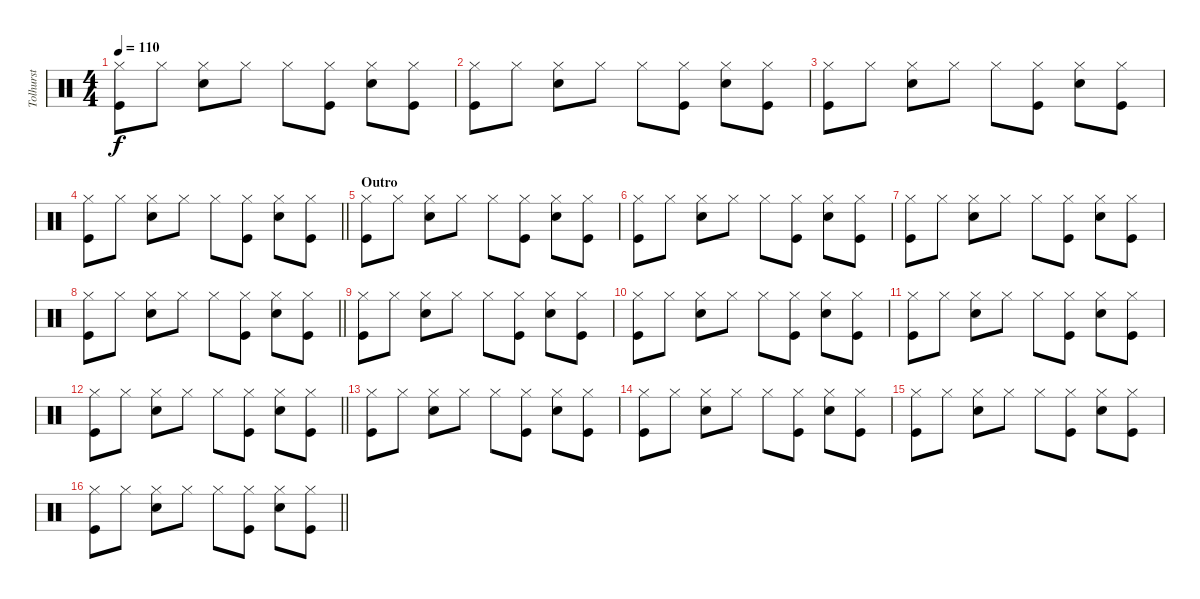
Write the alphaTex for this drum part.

\track ("Tolhurst" "Tolhurst") {instrument percussion}
\staff {score}
\articulation defaults
\ts (4 4)
\tempo 110
\clef neutral
\ks c
("Hi-Hat (closed)" "Kick (hit)").8{dy f} "Hi-Hat (closed)".8 ("Hi-Hat (closed)" "Electric Snare (hit)").8 "Hi-Hat (closed)".8 "Hi-Hat (closed)".8 ("Hi-Hat (closed)" "Kick (hit)").8 ("Hi-Hat (closed)" "Electric Snare (hit)").8 ("Hi-Hat (closed)" "Kick (hit)").8 |
("Hi-Hat (closed)" "Kick (hit)").8 "Hi-Hat (closed)".8 ("Hi-Hat (closed)" "Electric Snare (hit)").8 "Hi-Hat (closed)".8 "Hi-Hat (closed)".8 ("Hi-Hat (closed)" "Kick (hit)").8 ("Hi-Hat (closed)" "Electric Snare (hit)").8 ("Hi-Hat (closed)" "Kick (hit)").8 |
("Hi-Hat (closed)" "Kick (hit)").8 "Hi-Hat (closed)".8 ("Hi-Hat (closed)" "Electric Snare (hit)").8 "Hi-Hat (closed)".8 "Hi-Hat (closed)".8 ("Hi-Hat (closed)" "Kick (hit)").8 ("Hi-Hat (closed)" "Electric Snare (hit)").8 ("Hi-Hat (closed)" "Kick (hit)").8 |
\barLineRight lightlight
("Hi-Hat (closed)" "Kick (hit)").8 "Hi-Hat (closed)".8 ("Hi-Hat (closed)" "Electric Snare (hit)").8 "Hi-Hat (closed)".8 "Hi-Hat (closed)".8 ("Hi-Hat (closed)" "Kick (hit)").8 ("Hi-Hat (closed)" "Electric Snare (hit)").8 ("Hi-Hat (closed)" "Kick (hit)").8 |
\section ("" "Outro")
("Hi-Hat (closed)" "Kick (hit)").8 "Hi-Hat (closed)".8 ("Hi-Hat (closed)" "Electric Snare (hit)").8 "Hi-Hat (closed)".8 "Hi-Hat (closed)".8 ("Hi-Hat (closed)" "Kick (hit)").8 ("Hi-Hat (closed)" "Electric Snare (hit)").8 ("Hi-Hat (closed)" "Kick (hit)").8 |
("Hi-Hat (closed)" "Kick (hit)").8 "Hi-Hat (closed)".8 ("Hi-Hat (closed)" "Electric Snare (hit)").8 "Hi-Hat (closed)".8 "Hi-Hat (closed)".8 ("Hi-Hat (closed)" "Kick (hit)").8 ("Hi-Hat (closed)" "Electric Snare (hit)").8 ("Hi-Hat (closed)" "Kick (hit)").8 |
("Hi-Hat (closed)" "Kick (hit)").8 "Hi-Hat (closed)".8 ("Hi-Hat (closed)" "Electric Snare (hit)").8 "Hi-Hat (closed)".8 "Hi-Hat (closed)".8 ("Hi-Hat (closed)" "Kick (hit)").8 ("Hi-Hat (closed)" "Electric Snare (hit)").8 ("Hi-Hat (closed)" "Kick (hit)").8 |
\barLineRight lightlight
("Hi-Hat (closed)" "Kick (hit)").8 "Hi-Hat (closed)".8 ("Hi-Hat (closed)" "Electric Snare (hit)").8 "Hi-Hat (closed)".8 "Hi-Hat (closed)".8 ("Hi-Hat (closed)" "Kick (hit)").8 ("Hi-Hat (closed)" "Electric Snare (hit)").8 ("Hi-Hat (closed)" "Kick (hit)").8 |
("Hi-Hat (closed)" "Kick (hit)").8 "Hi-Hat (closed)".8 ("Hi-Hat (closed)" "Electric Snare (hit)").8 "Hi-Hat (closed)".8 "Hi-Hat (closed)".8 ("Hi-Hat (closed)" "Kick (hit)").8 ("Hi-Hat (closed)" "Electric Snare (hit)").8 ("Hi-Hat (closed)" "Kick (hit)").8 |
("Hi-Hat (closed)" "Kick (hit)").8 "Hi-Hat (closed)".8 ("Hi-Hat (closed)" "Electric Snare (hit)").8 "Hi-Hat (closed)".8 "Hi-Hat (closed)".8 ("Hi-Hat (closed)" "Kick (hit)").8 ("Hi-Hat (closed)" "Electric Snare (hit)").8 ("Hi-Hat (closed)" "Kick (hit)").8 |
("Hi-Hat (closed)" "Kick (hit)").8 "Hi-Hat (closed)".8 ("Hi-Hat (closed)" "Electric Snare (hit)").8 "Hi-Hat (closed)".8 "Hi-Hat (closed)".8 ("Hi-Hat (closed)" "Kick (hit)").8 ("Hi-Hat (closed)" "Electric Snare (hit)").8 ("Hi-Hat (closed)" "Kick (hit)").8 |
\barLineRight lightlight
("Hi-Hat (closed)" "Kick (hit)").8 "Hi-Hat (closed)".8 ("Hi-Hat (closed)" "Electric Snare (hit)").8 "Hi-Hat (closed)".8 "Hi-Hat (closed)".8 ("Hi-Hat (closed)" "Kick (hit)").8 ("Hi-Hat (closed)" "Electric Snare (hit)").8 ("Hi-Hat (closed)" "Kick (hit)").8 |
("Hi-Hat (closed)" "Kick (hit)").8 "Hi-Hat (closed)".8 ("Hi-Hat (closed)" "Electric Snare (hit)").8 "Hi-Hat (closed)".8 "Hi-Hat (closed)".8 ("Hi-Hat (closed)" "Kick (hit)").8 ("Hi-Hat (closed)" "Electric Snare (hit)").8 ("Hi-Hat (closed)" "Kick (hit)").8 |
("Hi-Hat (closed)" "Kick (hit)").8 "Hi-Hat (closed)".8 ("Hi-Hat (closed)" "Electric Snare (hit)").8 "Hi-Hat (closed)".8 "Hi-Hat (closed)".8 ("Hi-Hat (closed)" "Kick (hit)").8 ("Hi-Hat (closed)" "Electric Snare (hit)").8 ("Hi-Hat (closed)" "Kick (hit)").8 |
("Hi-Hat (closed)" "Kick (hit)").8 "Hi-Hat (closed)".8 ("Hi-Hat (closed)" "Electric Snare (hit)").8 "Hi-Hat (closed)".8 "Hi-Hat (closed)".8 ("Hi-Hat (closed)" "Kick (hit)").8 ("Hi-Hat (closed)" "Electric Snare (hit)").8 ("Hi-Hat (closed)" "Kick (hit)").8 |
\barLineRight lightlight
("Hi-Hat (closed)" "Kick (hit)").8 "Hi-Hat (closed)".8 ("Hi-Hat (closed)" "Electric Snare (hit)").8 "Hi-Hat (closed)".8 "Hi-Hat (closed)".8 ("Hi-Hat (closed)" "Kick (hit)").8 ("Hi-Hat (closed)" "Electric Snare (hit)").8 ("Hi-Hat (closed)" "Kick (hit)").8
